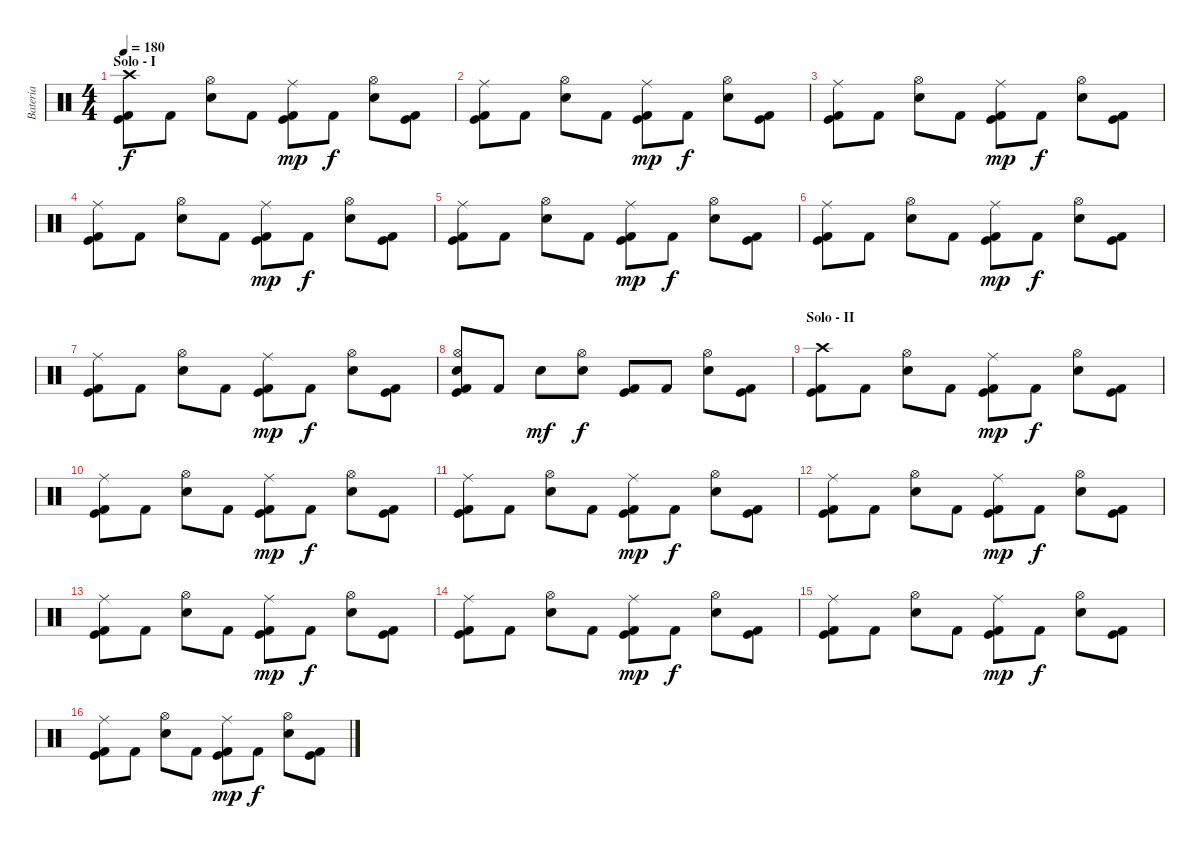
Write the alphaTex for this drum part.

\track ("Bateria" "Bateria") {instrument percussion}
\staff {score}
\articulation defaults
\ts (4 4)
\section ("" "Solo - I")
\tempo 180
\clef neutral
\ks c
("Crash high (hit)" "Kick (hit)" "Kick (hit) 2").8{dy f} "Kick (hit) 2".8 ("Hi-Hat (open)" "Snare (hit) 2").8 "Kick (hit) 2".8 ("Ride (middle)" "Kick (hit)" "Kick (hit) 2").8{dy mp} "Kick (hit) 2".8{dy f} ("Hi-Hat (open)" "Snare (hit) 2").8 ("Kick (hit)" "Kick (hit) 2").8 |
("Ride (middle)" "Kick (hit)" "Kick (hit) 2").8 "Kick (hit) 2".8 ("Hi-Hat (open)" "Snare (hit) 2").8 "Kick (hit) 2".8 ("Ride (middle)" "Kick (hit)" "Kick (hit) 2").8{dy mp} "Kick (hit) 2".8{dy f} ("Hi-Hat (open)" "Snare (hit) 2").8 ("Kick (hit)" "Kick (hit) 2").8 |
("Ride (middle)" "Kick (hit)" "Kick (hit) 2").8 "Kick (hit) 2".8 ("Hi-Hat (open)" "Snare (hit) 2").8 "Kick (hit) 2".8 ("Ride (middle)" "Kick (hit)" "Kick (hit) 2").8{dy mp} "Kick (hit) 2".8{dy f} ("Hi-Hat (open)" "Snare (hit) 2").8 ("Kick (hit)" "Kick (hit) 2").8 |
("Ride (middle)" "Kick (hit)" "Kick (hit) 2").8 "Kick (hit) 2".8 ("Hi-Hat (open)" "Snare (hit) 2").8 "Kick (hit) 2".8 ("Ride (middle)" "Kick (hit)" "Kick (hit) 2").8{dy mp} "Kick (hit) 2".8{dy f} ("Hi-Hat (open)" "Snare (hit) 2").8 ("Kick (hit)" "Kick (hit) 2").8 |
("Ride (middle)" "Kick (hit)" "Kick (hit) 2").8 "Kick (hit) 2".8 ("Hi-Hat (open)" "Snare (hit) 2").8 "Kick (hit) 2".8 ("Ride (middle)" "Kick (hit)" "Kick (hit) 2").8{dy mp} "Kick (hit) 2".8{dy f} ("Hi-Hat (open)" "Snare (hit) 2").8 ("Kick (hit)" "Kick (hit) 2").8 |
("Ride (middle)" "Kick (hit)" "Kick (hit) 2").8 "Kick (hit) 2".8 ("Hi-Hat (open)" "Snare (hit) 2").8 "Kick (hit) 2".8 ("Ride (middle)" "Kick (hit)" "Kick (hit) 2").8{dy mp} "Kick (hit) 2".8{dy f} ("Hi-Hat (open)" "Snare (hit) 2").8 ("Kick (hit)" "Kick (hit) 2").8 |
("Ride (middle)" "Kick (hit)" "Kick (hit) 2").8 "Kick (hit) 2".8 ("Hi-Hat (open)" "Snare (hit) 2").8 "Kick (hit) 2".8 ("Ride (middle)" "Kick (hit)" "Kick (hit) 2").8{dy mp} "Kick (hit) 2".8{dy f} ("Hi-Hat (open)" "Snare (hit) 2").8 ("Kick (hit)" "Kick (hit) 2").8 |
("Hi-Hat (open)" "Snare (hit) 2" "Kick (hit)" "Kick (hit) 2").8 "Kick (hit) 2".8 "Snare (hit) 2".8{dy mf} ("Hi-Hat (open)" "Snare (hit) 2").8{dy f} ("Kick (hit)" "Kick (hit) 2").8 "Kick (hit) 2".8 ("Hi-Hat (open)" "Snare (hit) 2").8 ("Kick (hit)" "Kick (hit) 2").8 |
\section ("" "Solo - II")
("Crash high (hit)" "Kick (hit)" "Kick (hit) 2").8 "Kick (hit) 2".8 ("Hi-Hat (open)" "Snare (hit) 2").8 "Kick (hit) 2".8 ("Ride (middle)" "Kick (hit)" "Kick (hit) 2").8{dy mp} "Kick (hit) 2".8{dy f} ("Hi-Hat (open)" "Snare (hit) 2").8 ("Kick (hit)" "Kick (hit) 2").8 |
("Ride (middle)" "Kick (hit)" "Kick (hit) 2").8 "Kick (hit) 2".8 ("Hi-Hat (open)" "Snare (hit) 2").8 "Kick (hit) 2".8 ("Ride (middle)" "Kick (hit)" "Kick (hit) 2").8{dy mp} "Kick (hit) 2".8{dy f} ("Hi-Hat (open)" "Snare (hit) 2").8 ("Kick (hit)" "Kick (hit) 2").8 |
("Ride (middle)" "Kick (hit)" "Kick (hit) 2").8 "Kick (hit) 2".8 ("Hi-Hat (open)" "Snare (hit) 2").8 "Kick (hit) 2".8 ("Ride (middle)" "Kick (hit)" "Kick (hit) 2").8{dy mp} "Kick (hit) 2".8{dy f} ("Hi-Hat (open)" "Snare (hit) 2").8 ("Kick (hit)" "Kick (hit) 2").8 |
("Ride (middle)" "Kick (hit)" "Kick (hit) 2").8 "Kick (hit) 2".8 ("Hi-Hat (open)" "Snare (hit) 2").8 "Kick (hit) 2".8 ("Ride (middle)" "Kick (hit)" "Kick (hit) 2").8{dy mp} "Kick (hit) 2".8{dy f} ("Hi-Hat (open)" "Snare (hit) 2").8 ("Kick (hit)" "Kick (hit) 2").8 |
("Ride (middle)" "Kick (hit)" "Kick (hit) 2").8 "Kick (hit) 2".8 ("Hi-Hat (open)" "Snare (hit) 2").8 "Kick (hit) 2".8 ("Ride (middle)" "Kick (hit)" "Kick (hit) 2").8{dy mp} "Kick (hit) 2".8{dy f} ("Hi-Hat (open)" "Snare (hit) 2").8 ("Kick (hit)" "Kick (hit) 2").8 |
("Ride (middle)" "Kick (hit)" "Kick (hit) 2").8 "Kick (hit) 2".8 ("Hi-Hat (open)" "Snare (hit) 2").8 "Kick (hit) 2".8 ("Ride (middle)" "Kick (hit)" "Kick (hit) 2").8{dy mp} "Kick (hit) 2".8{dy f} ("Hi-Hat (open)" "Snare (hit) 2").8 ("Kick (hit)" "Kick (hit) 2").8 |
("Ride (middle)" "Kick (hit)" "Kick (hit) 2").8 "Kick (hit) 2".8 ("Hi-Hat (open)" "Snare (hit) 2").8 "Kick (hit) 2".8 ("Ride (middle)" "Kick (hit)" "Kick (hit) 2").8{dy mp} "Kick (hit) 2".8{dy f} ("Hi-Hat (open)" "Snare (hit) 2").8 ("Kick (hit)" "Kick (hit) 2").8 |
("Ride (middle)" "Kick (hit)" "Kick (hit) 2").8 "Kick (hit) 2".8 ("Hi-Hat (open)" "Snare (hit) 2").8 "Kick (hit) 2".8 ("Ride (middle)" "Kick (hit)" "Kick (hit) 2").8{dy mp} "Kick (hit) 2".8{dy f} ("Hi-Hat (open)" "Snare (hit) 2").8 ("Kick (hit)" "Kick (hit) 2").8
